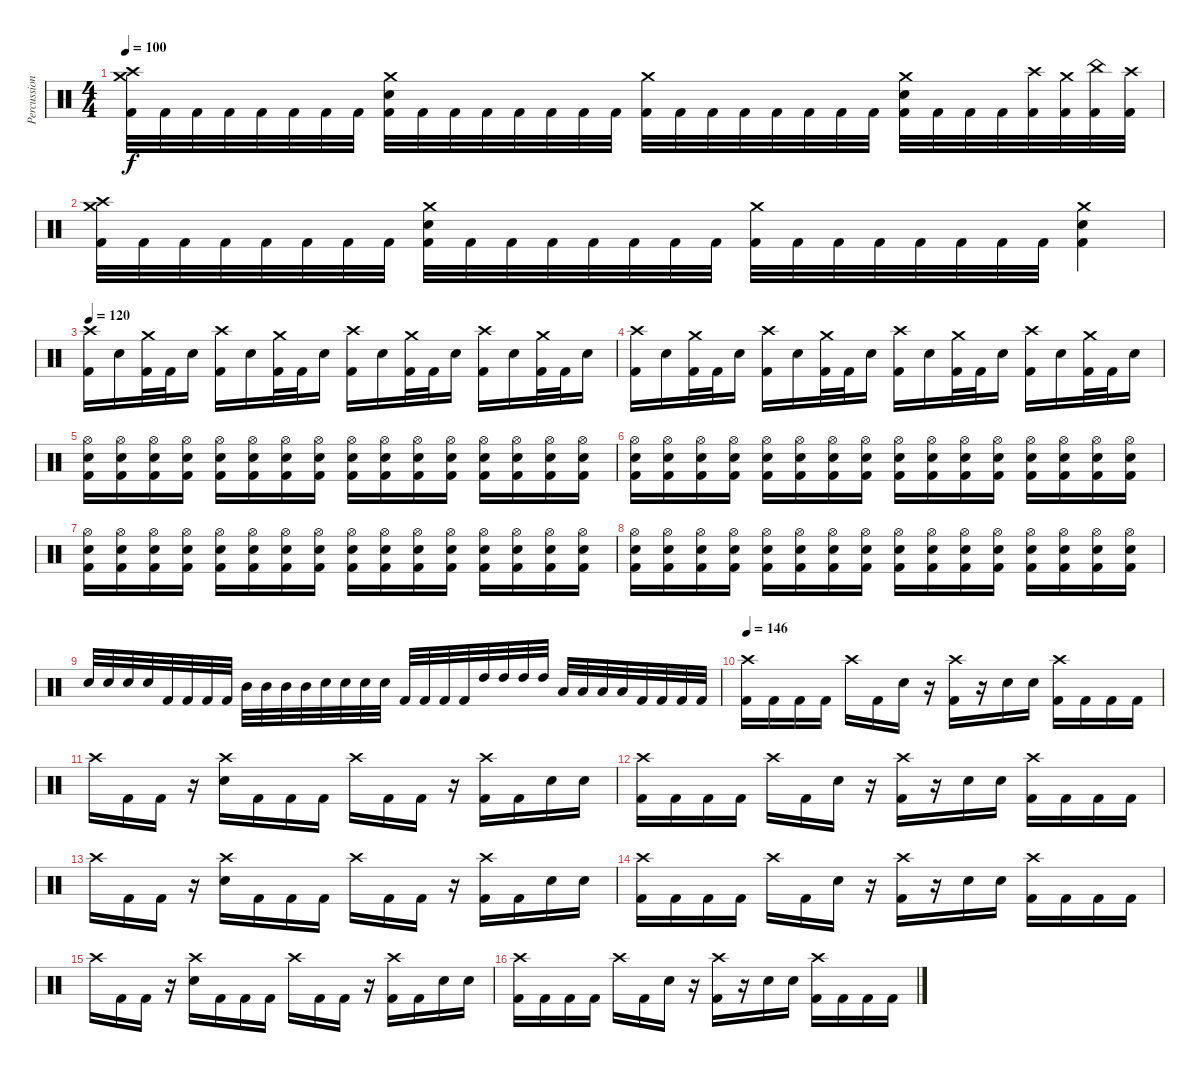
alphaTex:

\track ("Percussion" "Percussion") {instrument percussion}
\staff {score}
\articulation defaults
\ts (4 4)
\tempo 100
\clef neutral
\ks c
("Crash medium (hit)" "Crash high (hit)" "Kick (hit) 2").32{dy f} "Kick (hit) 2".32 "Kick (hit) 2".32 "Kick (hit) 2".32 "Kick (hit) 2".32 "Kick (hit) 2".32 "Kick (hit) 2".32 "Kick (hit) 2".32 ("Crash medium (hit)" "Electric Snare (hit)" "Kick (hit) 2").32 "Kick (hit) 2".32 "Kick (hit) 2".32 "Kick (hit) 2".32 "Kick (hit) 2".32 "Kick (hit) 2".32 "Kick (hit) 2".32 "Kick (hit) 2".32 ("Crash medium (hit)" "Kick (hit) 2").32 "Kick (hit) 2".32 "Kick (hit) 2".32 "Kick (hit) 2".32 "Kick (hit) 2".32 "Kick (hit) 2".32 "Kick (hit) 2".32 "Kick (hit) 2".32 ("Crash medium (hit)" "Electric Snare (hit)" "Kick (hit) 2").32 "Kick (hit) 2".32 "Kick (hit) 2".32 "Kick (hit) 2".32 ("Crash high (hit)" "Kick (hit) 2").32 ("Crash medium (hit)" "Kick (hit) 2").32 ("China (hit)" "Kick (hit) 2").32 ("Crash high (hit)" "Kick (hit) 2").32 |
("Crash medium (hit)" "Crash high (hit)" "Kick (hit) 2").32 "Kick (hit) 2".32 "Kick (hit) 2".32 "Kick (hit) 2".32 "Kick (hit) 2".32 "Kick (hit) 2".32 "Kick (hit) 2".32 "Kick (hit) 2".32 ("Crash medium (hit)" "Electric Snare (hit)" "Kick (hit) 2").32 "Kick (hit) 2".32 "Kick (hit) 2".32 "Kick (hit) 2".32 "Kick (hit) 2".32 "Kick (hit) 2".32 "Kick (hit) 2".32 "Kick (hit) 2".32 ("Crash medium (hit)" "Kick (hit) 2").32 "Kick (hit) 2".32 "Kick (hit) 2".32 "Kick (hit) 2".32 "Kick (hit) 2".32 "Kick (hit) 2".32 "Kick (hit) 2".32 "Kick (hit) 2".32 ("Crash medium (hit)" "Electric Snare (hit)" "Kick (hit) 2").4 |
\tempo 120
("Crash high (hit)" "Kick (hit) 2").16 "Electric Snare (hit)".16 ("Crash medium (hit)" "Kick (hit) 2").32 "Kick (hit) 2".32 "Electric Snare (hit)".16 ("Crash high (hit)" "Kick (hit) 2").16 "Electric Snare (hit)".16 ("Crash medium (hit)" "Kick (hit) 2").32 "Kick (hit) 2".32 "Electric Snare (hit)".16 ("Crash high (hit)" "Kick (hit) 2").16 "Electric Snare (hit)".16 ("Crash medium (hit)" "Kick (hit) 2").32 "Kick (hit) 2".32 "Electric Snare (hit)".16 ("Crash high (hit)" "Kick (hit) 2").16 "Electric Snare (hit)".16 ("Crash medium (hit)" "Kick (hit) 2").32 "Kick (hit) 2".32 "Electric Snare (hit)".16 |
("Crash high (hit)" "Kick (hit) 2").16 "Electric Snare (hit)".16 ("Crash medium (hit)" "Kick (hit) 2").32 "Kick (hit) 2".32 "Electric Snare (hit)".16 ("Crash high (hit)" "Kick (hit) 2").16 "Electric Snare (hit)".16 ("Crash medium (hit)" "Kick (hit) 2").32 "Kick (hit) 2".32 "Electric Snare (hit)".16 ("Crash high (hit)" "Kick (hit) 2").16 "Electric Snare (hit)".16 ("Crash medium (hit)" "Kick (hit) 2").32 "Kick (hit) 2".32 "Electric Snare (hit)".16 ("Crash high (hit)" "Kick (hit) 2").16 "Electric Snare (hit)".16 ("Crash medium (hit)" "Kick (hit) 2").32 "Kick (hit) 2".32 "Electric Snare (hit)".16 |
("Hi-Hat (open)" "Electric Snare (hit)" "Kick (hit) 2").16 ("Hi-Hat (open)" "Electric Snare (hit)" "Kick (hit) 2").16 ("Hi-Hat (open)" "Electric Snare (hit)" "Kick (hit) 2").16 ("Hi-Hat (open)" "Electric Snare (hit)" "Kick (hit) 2").16 ("Hi-Hat (open)" "Electric Snare (hit)" "Kick (hit) 2").16 ("Hi-Hat (open)" "Electric Snare (hit)" "Kick (hit) 2").16 ("Hi-Hat (open)" "Electric Snare (hit)" "Kick (hit) 2").16 ("Hi-Hat (open)" "Electric Snare (hit)" "Kick (hit) 2").16 ("Hi-Hat (open)" "Electric Snare (hit)" "Kick (hit) 2").16 ("Hi-Hat (open)" "Electric Snare (hit)" "Kick (hit) 2").16 ("Hi-Hat (open)" "Electric Snare (hit)" "Kick (hit) 2").16 ("Hi-Hat (open)" "Electric Snare (hit)" "Kick (hit) 2").16 ("Hi-Hat (open)" "Electric Snare (hit)" "Kick (hit) 2").16 ("Hi-Hat (open)" "Electric Snare (hit)" "Kick (hit) 2").16 ("Hi-Hat (open)" "Electric Snare (hit)" "Kick (hit) 2").16 ("Hi-Hat (open)" "Electric Snare (hit)" "Kick (hit) 2").16 |
("Hi-Hat (open)" "Electric Snare (hit)" "Kick (hit) 2").16 ("Hi-Hat (open)" "Electric Snare (hit)" "Kick (hit) 2").16 ("Hi-Hat (open)" "Electric Snare (hit)" "Kick (hit) 2").16 ("Hi-Hat (open)" "Electric Snare (hit)" "Kick (hit) 2").16 ("Hi-Hat (open)" "Electric Snare (hit)" "Kick (hit) 2").16 ("Hi-Hat (open)" "Electric Snare (hit)" "Kick (hit) 2").16 ("Hi-Hat (open)" "Electric Snare (hit)" "Kick (hit) 2").16 ("Hi-Hat (open)" "Electric Snare (hit)" "Kick (hit) 2").16 ("Hi-Hat (open)" "Electric Snare (hit)" "Kick (hit) 2").16 ("Hi-Hat (open)" "Electric Snare (hit)" "Kick (hit) 2").16 ("Hi-Hat (open)" "Electric Snare (hit)" "Kick (hit) 2").16 ("Hi-Hat (open)" "Electric Snare (hit)" "Kick (hit) 2").16 ("Hi-Hat (open)" "Electric Snare (hit)" "Kick (hit) 2").16 ("Hi-Hat (open)" "Electric Snare (hit)" "Kick (hit) 2").16 ("Hi-Hat (open)" "Electric Snare (hit)" "Kick (hit) 2").16 ("Hi-Hat (open)" "Electric Snare (hit)" "Kick (hit) 2").16 |
("Hi-Hat (open)" "Electric Snare (hit)" "Kick (hit) 2").16 ("Hi-Hat (open)" "Electric Snare (hit)" "Kick (hit) 2").16 ("Hi-Hat (open)" "Electric Snare (hit)" "Kick (hit) 2").16 ("Hi-Hat (open)" "Electric Snare (hit)" "Kick (hit) 2").16 ("Hi-Hat (open)" "Electric Snare (hit)" "Kick (hit) 2").16 ("Hi-Hat (open)" "Electric Snare (hit)" "Kick (hit) 2").16 ("Hi-Hat (open)" "Electric Snare (hit)" "Kick (hit) 2").16 ("Hi-Hat (open)" "Electric Snare (hit)" "Kick (hit) 2").16 ("Hi-Hat (open)" "Electric Snare (hit)" "Kick (hit) 2").16 ("Hi-Hat (open)" "Electric Snare (hit)" "Kick (hit) 2").16 ("Hi-Hat (open)" "Electric Snare (hit)" "Kick (hit) 2").16 ("Hi-Hat (open)" "Electric Snare (hit)" "Kick (hit) 2").16 ("Hi-Hat (open)" "Electric Snare (hit)" "Kick (hit) 2").16 ("Hi-Hat (open)" "Electric Snare (hit)" "Kick (hit) 2").16 ("Hi-Hat (open)" "Electric Snare (hit)" "Kick (hit) 2").16 ("Hi-Hat (open)" "Electric Snare (hit)" "Kick (hit) 2").16 |
("Hi-Hat (open)" "Electric Snare (hit)" "Kick (hit) 2").16 ("Hi-Hat (open)" "Electric Snare (hit)" "Kick (hit) 2").16 ("Hi-Hat (open)" "Electric Snare (hit)" "Kick (hit) 2").16 ("Hi-Hat (open)" "Electric Snare (hit)" "Kick (hit) 2").16 ("Hi-Hat (open)" "Electric Snare (hit)" "Kick (hit) 2").16 ("Hi-Hat (open)" "Electric Snare (hit)" "Kick (hit) 2").16 ("Hi-Hat (open)" "Electric Snare (hit)" "Kick (hit) 2").16 ("Hi-Hat (open)" "Electric Snare (hit)" "Kick (hit) 2").16 ("Hi-Hat (open)" "Electric Snare (hit)" "Kick (hit) 2").16 ("Hi-Hat (open)" "Electric Snare (hit)" "Kick (hit) 2").16 ("Hi-Hat (open)" "Electric Snare (hit)" "Kick (hit) 2").16 ("Hi-Hat (open)" "Electric Snare (hit)" "Kick (hit) 2").16 ("Hi-Hat (open)" "Electric Snare (hit)" "Kick (hit) 2").16 ("Hi-Hat (open)" "Electric Snare (hit)" "Kick (hit) 2").16 ("Hi-Hat (open)" "Electric Snare (hit)" "Kick (hit) 2").16 ("Hi-Hat (open)" "Electric Snare (hit)" "Kick (hit) 2").16 |
"Electric Snare (hit)".32 "Electric Snare (hit)".32 "Electric Snare (hit)".32 "Electric Snare (hit)".32 "Kick (hit) 2".32 "Kick (hit) 2".32 "Kick (hit) 2".32 "Kick (hit) 2".32 "Mid Tom (hit)".32 "Mid Tom (hit)".32 "Mid Tom (hit)".32 "Mid Tom (hit)".32 "Electric Snare (hit)".32 "Electric Snare (hit)".32 "Electric Snare (hit)".32 "Electric Snare (hit)".32 "Kick (hit) 2".32 "Kick (hit) 2".32 "Kick (hit) 2".32 "Kick (hit) 2".32 "High Tom (hit)".32 "High Tom (hit)".32 "High Tom (hit)".32 "High Tom (hit)".32 "Low Tom (hit)".32 "Low Tom (hit)".32 "Low Tom (hit)".32 "Low Tom (hit)".32 "Kick (hit) 2".32 "Kick (hit) 2".32 "Kick (hit) 2".32 "Kick (hit) 2".32 |
\tempo 146
("Crash high (hit)" "Kick (hit) 2").16 "Kick (hit) 2".16 "Kick (hit) 2".16 "Kick (hit) 2".16 "Crash high (hit)".16 "Kick (hit) 2".16 "Electric Snare (hit)".16 r.16 ("Crash high (hit)" "Kick (hit) 2").16 r.16 "Electric Snare (hit)".16 "Electric Snare (hit)".16 ("Crash high (hit)" "Kick (hit) 2").16 "Kick (hit) 2".16 "Kick (hit) 2".16 "Kick (hit) 2".16 |
"Crash high (hit)".16 "Kick (hit) 2".16 "Kick (hit) 2".16 r.16 ("Crash high (hit)" "Electric Snare (hit)").16 "Kick (hit) 2".16 "Kick (hit) 2".16 "Kick (hit) 2".16 "Crash high (hit)".16 "Kick (hit) 2".16 "Kick (hit) 2".16 r.16 ("Crash high (hit)" "Kick (hit) 2").16 "Kick (hit) 2".16 "Electric Snare (hit)".16 "Electric Snare (hit)".16 |
("Crash high (hit)" "Kick (hit) 2").16 "Kick (hit) 2".16 "Kick (hit) 2".16 "Kick (hit) 2".16 "Crash high (hit)".16 "Kick (hit) 2".16 "Electric Snare (hit)".16 r.16 ("Crash high (hit)" "Kick (hit) 2").16 r.16 "Electric Snare (hit)".16 "Electric Snare (hit)".16 ("Crash high (hit)" "Kick (hit) 2").16 "Kick (hit) 2".16 "Kick (hit) 2".16 "Kick (hit) 2".16 |
"Crash high (hit)".16 "Kick (hit) 2".16 "Kick (hit) 2".16 r.16 ("Crash high (hit)" "Electric Snare (hit)").16 "Kick (hit) 2".16 "Kick (hit) 2".16 "Kick (hit) 2".16 "Crash high (hit)".16 "Kick (hit) 2".16 "Kick (hit) 2".16 r.16 ("Crash high (hit)" "Kick (hit) 2").16 "Kick (hit) 2".16 "Electric Snare (hit)".16 "Electric Snare (hit)".16 |
("Crash high (hit)" "Kick (hit) 2").16 "Kick (hit) 2".16 "Kick (hit) 2".16 "Kick (hit) 2".16 "Crash high (hit)".16 "Kick (hit) 2".16 "Electric Snare (hit)".16 r.16 ("Crash high (hit)" "Kick (hit) 2").16 r.16 "Electric Snare (hit)".16 "Electric Snare (hit)".16 ("Crash high (hit)" "Kick (hit) 2").16 "Kick (hit) 2".16 "Kick (hit) 2".16 "Kick (hit) 2".16 |
"Crash high (hit)".16 "Kick (hit) 2".16 "Kick (hit) 2".16 r.16 ("Crash high (hit)" "Electric Snare (hit)").16 "Kick (hit) 2".16 "Kick (hit) 2".16 "Kick (hit) 2".16 "Crash high (hit)".16 "Kick (hit) 2".16 "Kick (hit) 2".16 r.16 ("Crash high (hit)" "Kick (hit) 2").16 "Kick (hit) 2".16 "Electric Snare (hit)".16 "Electric Snare (hit)".16 |
("Crash high (hit)" "Kick (hit) 2").16 "Kick (hit) 2".16 "Kick (hit) 2".16 "Kick (hit) 2".16 "Crash high (hit)".16 "Kick (hit) 2".16 "Electric Snare (hit)".16 r.16 ("Crash high (hit)" "Kick (hit) 2").16 r.16 "Electric Snare (hit)".16 "Electric Snare (hit)".16 ("Crash high (hit)" "Kick (hit) 2").16 "Kick (hit) 2".16 "Kick (hit) 2".16 "Kick (hit) 2".16
